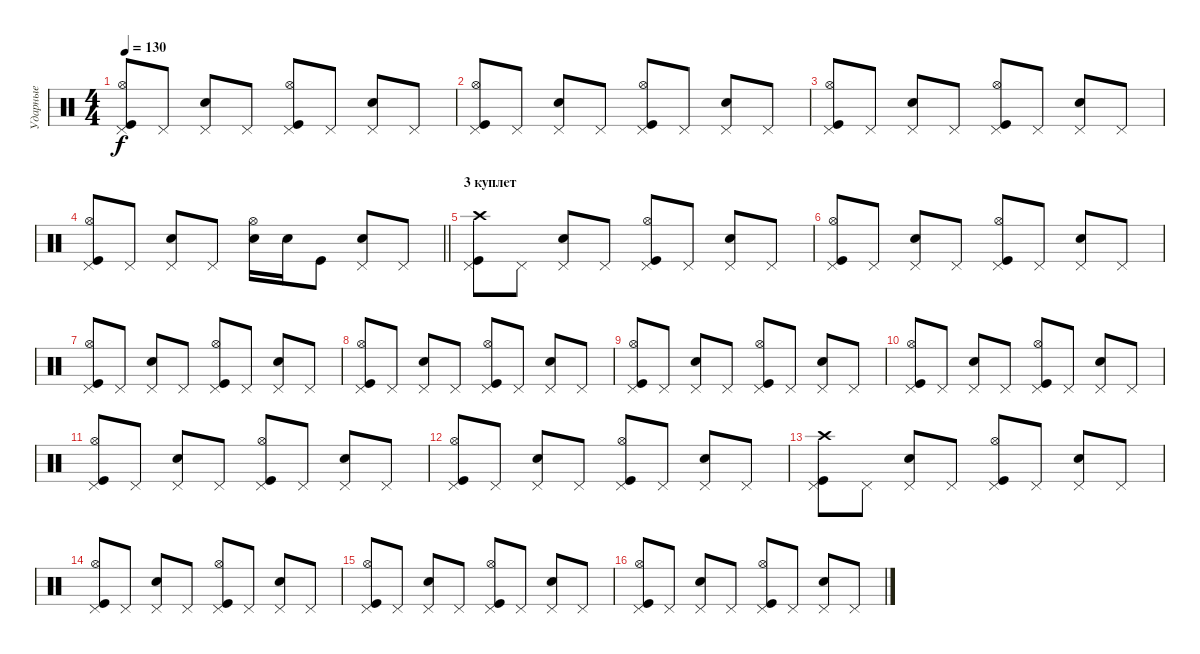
\track ("Ударные" "Ударные") {instrument percussion}
\staff {score}
\articulation defaults
\ts (4 4)
\tempo 130
\clef neutral
\ks c
("Pedal Hi-Hat (hit)" "Hi-Hat (open)" "Kick (hit)").8{dy f} "Pedal Hi-Hat (hit)".8 ("Pedal Hi-Hat (hit)" "Snare (hit) 2").8 "Pedal Hi-Hat (hit)".8 ("Pedal Hi-Hat (hit)" "Hi-Hat (open)" "Kick (hit)").8 "Pedal Hi-Hat (hit)".8 ("Pedal Hi-Hat (hit)" "Snare (hit) 2").8 "Pedal Hi-Hat (hit)".8 |
("Pedal Hi-Hat (hit)" "Hi-Hat (open)" "Kick (hit)").8 "Pedal Hi-Hat (hit)".8 ("Pedal Hi-Hat (hit)" "Snare (hit) 2").8 "Pedal Hi-Hat (hit)".8 ("Pedal Hi-Hat (hit)" "Hi-Hat (open)" "Kick (hit)").8 "Pedal Hi-Hat (hit)".8 ("Pedal Hi-Hat (hit)" "Snare (hit) 2").8 "Pedal Hi-Hat (hit)".8 |
("Pedal Hi-Hat (hit)" "Hi-Hat (open)" "Kick (hit)").8 "Pedal Hi-Hat (hit)".8 ("Pedal Hi-Hat (hit)" "Snare (hit) 2").8 "Pedal Hi-Hat (hit)".8 ("Pedal Hi-Hat (hit)" "Hi-Hat (open)" "Kick (hit)").8 "Pedal Hi-Hat (hit)".8 ("Pedal Hi-Hat (hit)" "Snare (hit) 2").8 "Pedal Hi-Hat (hit)".8 |
\barLineRight lightlight
("Pedal Hi-Hat (hit)" "Hi-Hat (open)" "Kick (hit)").8 "Pedal Hi-Hat (hit)".8 ("Pedal Hi-Hat (hit)" "Snare (hit) 2").8 "Pedal Hi-Hat (hit)".8 ("Snare (hit) 2" "Hi-Hat (open)").16 "Snare (hit) 2".16 "Kick (hit)".8 ("Snare (hit) 2" "Pedal Hi-Hat (hit)").8 "Pedal Hi-Hat (hit)".8 |
\section ("" "3 куплет")
("Pedal Hi-Hat (hit)" "Crash high (hit)" "Kick (hit)").8 "Pedal Hi-Hat (hit)".8 ("Pedal Hi-Hat (hit)" "Snare (hit) 2").8 "Pedal Hi-Hat (hit)".8 ("Pedal Hi-Hat (hit)" "Hi-Hat (open)" "Kick (hit)").8 "Pedal Hi-Hat (hit)".8 ("Pedal Hi-Hat (hit)" "Snare (hit) 2").8 "Pedal Hi-Hat (hit)".8 |
("Pedal Hi-Hat (hit)" "Hi-Hat (open)" "Kick (hit)").8 "Pedal Hi-Hat (hit)".8 ("Pedal Hi-Hat (hit)" "Snare (hit) 2").8 "Pedal Hi-Hat (hit)".8 ("Pedal Hi-Hat (hit)" "Hi-Hat (open)" "Kick (hit)").8 "Pedal Hi-Hat (hit)".8 ("Pedal Hi-Hat (hit)" "Snare (hit) 2").8 "Pedal Hi-Hat (hit)".8 |
("Pedal Hi-Hat (hit)" "Hi-Hat (open)" "Kick (hit)").8 "Pedal Hi-Hat (hit)".8 ("Pedal Hi-Hat (hit)" "Snare (hit) 2").8 "Pedal Hi-Hat (hit)".8 ("Pedal Hi-Hat (hit)" "Hi-Hat (open)" "Kick (hit)").8 "Pedal Hi-Hat (hit)".8 ("Pedal Hi-Hat (hit)" "Snare (hit) 2").8 "Pedal Hi-Hat (hit)".8 |
("Pedal Hi-Hat (hit)" "Hi-Hat (open)" "Kick (hit)").8 "Pedal Hi-Hat (hit)".8 ("Pedal Hi-Hat (hit)" "Snare (hit) 2").8 "Pedal Hi-Hat (hit)".8 ("Pedal Hi-Hat (hit)" "Hi-Hat (open)" "Kick (hit)").8 "Pedal Hi-Hat (hit)".8 ("Pedal Hi-Hat (hit)" "Snare (hit) 2").8 "Pedal Hi-Hat (hit)".8 |
("Pedal Hi-Hat (hit)" "Hi-Hat (open)" "Kick (hit)").8 "Pedal Hi-Hat (hit)".8 ("Pedal Hi-Hat (hit)" "Snare (hit) 2").8 "Pedal Hi-Hat (hit)".8 ("Pedal Hi-Hat (hit)" "Hi-Hat (open)" "Kick (hit)").8 "Pedal Hi-Hat (hit)".8 ("Pedal Hi-Hat (hit)" "Snare (hit) 2").8 "Pedal Hi-Hat (hit)".8 |
("Pedal Hi-Hat (hit)" "Hi-Hat (open)" "Kick (hit)").8 "Pedal Hi-Hat (hit)".8 ("Pedal Hi-Hat (hit)" "Snare (hit) 2").8 "Pedal Hi-Hat (hit)".8 ("Pedal Hi-Hat (hit)" "Hi-Hat (open)" "Kick (hit)").8 "Pedal Hi-Hat (hit)".8 ("Pedal Hi-Hat (hit)" "Snare (hit) 2").8 "Pedal Hi-Hat (hit)".8 |
("Pedal Hi-Hat (hit)" "Hi-Hat (open)" "Kick (hit)").8 "Pedal Hi-Hat (hit)".8 ("Pedal Hi-Hat (hit)" "Snare (hit) 2").8 "Pedal Hi-Hat (hit)".8 ("Pedal Hi-Hat (hit)" "Hi-Hat (open)" "Kick (hit)").8 "Pedal Hi-Hat (hit)".8 ("Pedal Hi-Hat (hit)" "Snare (hit) 2").8 "Pedal Hi-Hat (hit)".8 |
("Pedal Hi-Hat (hit)" "Hi-Hat (open)" "Kick (hit)").8 "Pedal Hi-Hat (hit)".8 ("Pedal Hi-Hat (hit)" "Snare (hit) 2").8 "Pedal Hi-Hat (hit)".8 ("Pedal Hi-Hat (hit)" "Hi-Hat (open)" "Kick (hit)").8 "Pedal Hi-Hat (hit)".8 ("Pedal Hi-Hat (hit)" "Snare (hit) 2").8 "Pedal Hi-Hat (hit)".8 |
("Pedal Hi-Hat (hit)" "Crash high (hit)" "Kick (hit)").8 "Pedal Hi-Hat (hit)".8 ("Pedal Hi-Hat (hit)" "Snare (hit) 2").8 "Pedal Hi-Hat (hit)".8 ("Pedal Hi-Hat (hit)" "Hi-Hat (open)" "Kick (hit)").8 "Pedal Hi-Hat (hit)".8 ("Pedal Hi-Hat (hit)" "Snare (hit) 2").8 "Pedal Hi-Hat (hit)".8 |
("Pedal Hi-Hat (hit)" "Hi-Hat (open)" "Kick (hit)").8 "Pedal Hi-Hat (hit)".8 ("Pedal Hi-Hat (hit)" "Snare (hit) 2").8 "Pedal Hi-Hat (hit)".8 ("Pedal Hi-Hat (hit)" "Hi-Hat (open)" "Kick (hit)").8 "Pedal Hi-Hat (hit)".8 ("Pedal Hi-Hat (hit)" "Snare (hit) 2").8 "Pedal Hi-Hat (hit)".8 |
("Pedal Hi-Hat (hit)" "Hi-Hat (open)" "Kick (hit)").8 "Pedal Hi-Hat (hit)".8 ("Pedal Hi-Hat (hit)" "Snare (hit) 2").8 "Pedal Hi-Hat (hit)".8 ("Pedal Hi-Hat (hit)" "Hi-Hat (open)" "Kick (hit)").8 "Pedal Hi-Hat (hit)".8 ("Pedal Hi-Hat (hit)" "Snare (hit) 2").8 "Pedal Hi-Hat (hit)".8 |
("Pedal Hi-Hat (hit)" "Hi-Hat (open)" "Kick (hit)").8 "Pedal Hi-Hat (hit)".8 ("Pedal Hi-Hat (hit)" "Snare (hit) 2").8 "Pedal Hi-Hat (hit)".8 ("Pedal Hi-Hat (hit)" "Hi-Hat (open)" "Kick (hit)").8 "Pedal Hi-Hat (hit)".8 ("Pedal Hi-Hat (hit)" "Snare (hit) 2").8 "Pedal Hi-Hat (hit)".8
